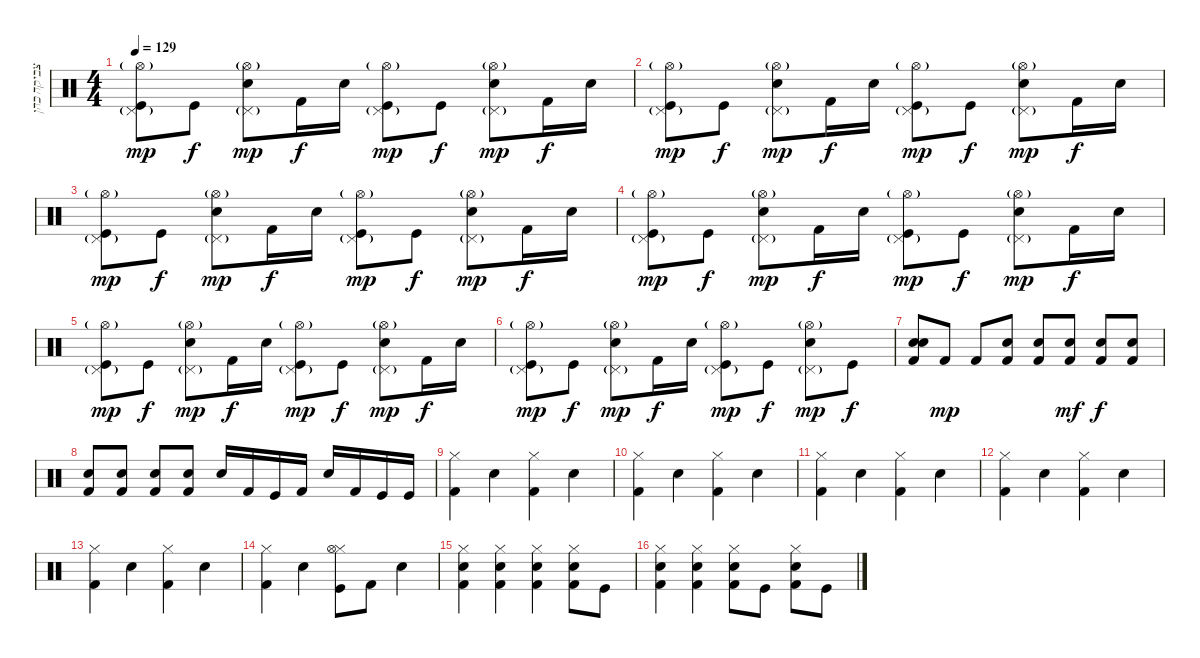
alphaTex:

\track ("צביקה כהן - תופים" "צביקה כהן ") {instrument percussion}
\staff {score}
\articulation defaults
\ts (4 4)
\tempo 129
\clef neutral
\ks c
("Hi-Hat (open)"{g} "Kick (hit)" "Pedal Hi-Hat (hit)"{g}).8{dy mp} "Kick (hit)".8{dy f} ("Hi-Hat (open)"{g} "Electric Snare (hit)" "Pedal Hi-Hat (hit)"{g}).8{dy mp} "Kick (hit) 2".16{dy f} "Electric Snare (hit)".16 ("Hi-Hat (open)"{g} "Kick (hit)" "Pedal Hi-Hat (hit)"{g}).8{dy mp} "Kick (hit)".8{dy f} ("Hi-Hat (open)"{g} "Electric Snare (hit)" "Pedal Hi-Hat (hit)"{g}).8{dy mp} "Kick (hit) 2".16{dy f} "Electric Snare (hit)".16 |
("Hi-Hat (open)"{g} "Kick (hit)" "Pedal Hi-Hat (hit)"{g}).8{dy mp} "Kick (hit)".8{dy f} ("Hi-Hat (open)"{g} "Electric Snare (hit)" "Pedal Hi-Hat (hit)"{g}).8{dy mp} "Kick (hit) 2".16{dy f} "Electric Snare (hit)".16 ("Hi-Hat (open)"{g} "Kick (hit)" "Pedal Hi-Hat (hit)"{g}).8{dy mp} "Kick (hit)".8{dy f} ("Hi-Hat (open)"{g} "Electric Snare (hit)" "Pedal Hi-Hat (hit)"{g}).8{dy mp} "Kick (hit) 2".16{dy f} "Electric Snare (hit)".16 |
("Hi-Hat (open)"{g} "Kick (hit)" "Pedal Hi-Hat (hit)"{g}).8{dy mp} "Kick (hit)".8{dy f} ("Hi-Hat (open)"{g} "Electric Snare (hit)" "Pedal Hi-Hat (hit)"{g}).8{dy mp} "Kick (hit) 2".16{dy f} "Electric Snare (hit)".16 ("Hi-Hat (open)"{g} "Kick (hit)" "Pedal Hi-Hat (hit)"{g}).8{dy mp} "Kick (hit)".8{dy f} ("Hi-Hat (open)"{g} "Electric Snare (hit)" "Pedal Hi-Hat (hit)"{g}).8{dy mp} "Kick (hit) 2".16{dy f} "Electric Snare (hit)".16 |
("Hi-Hat (open)"{g} "Kick (hit)" "Pedal Hi-Hat (hit)"{g}).8{dy mp} "Kick (hit)".8{dy f} ("Hi-Hat (open)"{g} "Electric Snare (hit)" "Pedal Hi-Hat (hit)"{g}).8{dy mp} "Kick (hit) 2".16{dy f} "Electric Snare (hit)".16 ("Hi-Hat (open)"{g} "Kick (hit)" "Pedal Hi-Hat (hit)"{g}).8{dy mp} "Kick (hit)".8{dy f} ("Hi-Hat (open)"{g} "Electric Snare (hit)" "Pedal Hi-Hat (hit)"{g}).8{dy mp} "Kick (hit) 2".16{dy f} "Electric Snare (hit)".16 |
("Hi-Hat (open)"{g} "Kick (hit)" "Pedal Hi-Hat (hit)"{g}).8{dy mp} "Kick (hit)".8{dy f} ("Hi-Hat (open)"{g} "Electric Snare (hit)" "Pedal Hi-Hat (hit)"{g}).8{dy mp} "Kick (hit) 2".16{dy f} "Electric Snare (hit)".16 ("Hi-Hat (open)"{g} "Kick (hit)" "Pedal Hi-Hat (hit)"{g}).8{dy mp} "Kick (hit)".8{dy f} ("Hi-Hat (open)"{g} "Electric Snare (hit)" "Pedal Hi-Hat (hit)"{g}).8{dy mp} "Kick (hit) 2".16{dy f} "Electric Snare (hit)".16 |
("Hi-Hat (open)"{g} "Kick (hit)" "Pedal Hi-Hat (hit)"{g}).8{dy mp} "Kick (hit)".8{dy f} ("Hi-Hat (open)"{g} "Electric Snare (hit)" "Pedal Hi-Hat (hit)"{g}).8{dy mp} "Kick (hit) 2".16{dy f} "Electric Snare (hit)".16 ("Hi-Hat (open)"{g} "Kick (hit)" "Pedal Hi-Hat (hit)"{g}).8{dy mp} "Kick (hit)".8{dy f} ("Hi-Hat (open)"{g} "Electric Snare (hit)" "Pedal Hi-Hat (hit)"{g}).8{dy mp} "Kick (hit)".8{dy f} |
("Electric Snare (hit)" "Snare (hit) 2" "Kick (hit) 2").8 "Kick (hit) 2".8{dy mp} "Kick (hit) 2".8 ("Electric Snare (hit)" "Kick (hit) 2").8 ("Electric Snare (hit)" "Kick (hit) 2").8 ("Electric Snare (hit)" "Kick (hit) 2").8{dy mf} ("Electric Snare (hit)" "Kick (hit) 2").8{dy f} ("Electric Snare (hit)" "Kick (hit) 2").8 |
("Electric Snare (hit)" "Kick (hit) 2").8 ("Electric Snare (hit)" "Kick (hit) 2").8 ("Electric Snare (hit)" "Kick (hit) 2").8 ("Electric Snare (hit)" "Kick (hit) 2").8 "Electric Snare (hit)".16 "Kick (hit) 2".16 "Kick (hit)".16 "Kick (hit) 2".16 "Electric Snare (hit)".16 "Kick (hit) 2".16 "Kick (hit)".16 "Kick (hit)".16 |
("Kick (hit) 2" "Hi-Hat (closed)").4 "Electric Snare (hit)".4 ("Kick (hit) 2" "Hi-Hat (closed)").4 "Electric Snare (hit)".4 |
("Kick (hit) 2" "Hi-Hat (closed)").4 "Electric Snare (hit)".4 ("Kick (hit) 2" "Hi-Hat (closed)").4 "Electric Snare (hit)".4 |
("Kick (hit) 2" "Hi-Hat (closed)").4 "Electric Snare (hit)".4 ("Kick (hit) 2" "Hi-Hat (closed)").4 "Electric Snare (hit)".4 |
("Kick (hit) 2" "Hi-Hat (closed)").4 "Electric Snare (hit)".4 ("Kick (hit) 2" "Hi-Hat (closed)").4 "Electric Snare (hit)".4 |
("Kick (hit) 2" "Hi-Hat (closed)").4 "Electric Snare (hit)".4 ("Kick (hit) 2" "Hi-Hat (closed)").4 "Electric Snare (hit)".4 |
("Kick (hit) 2" "Hi-Hat (closed)").4 "Electric Snare (hit)".4 ("Hi-Hat (closed)" "Kick (hit)" "Hi-Hat (open)").8 "Kick (hit) 2".8 "Electric Snare (hit)".4 |
("Hi-Hat (closed)" "Electric Snare (hit)" "Kick (hit) 2").4 ("Hi-Hat (closed)" "Electric Snare (hit)" "Kick (hit) 2").4 ("Hi-Hat (closed)" "Electric Snare (hit)" "Kick (hit) 2").4 ("Hi-Hat (closed)" "Electric Snare (hit)" "Kick (hit) 2").8 "Kick (hit)".8 |
("Hi-Hat (closed)" "Electric Snare (hit)" "Kick (hit) 2").4 ("Hi-Hat (closed)" "Electric Snare (hit)" "Kick (hit) 2").4 ("Hi-Hat (closed)" "Electric Snare (hit)" "Kick (hit) 2").8 "Kick (hit)".8 ("Hi-Hat (closed)" "Electric Snare (hit)" "Kick (hit) 2").8 "Kick (hit)".8
